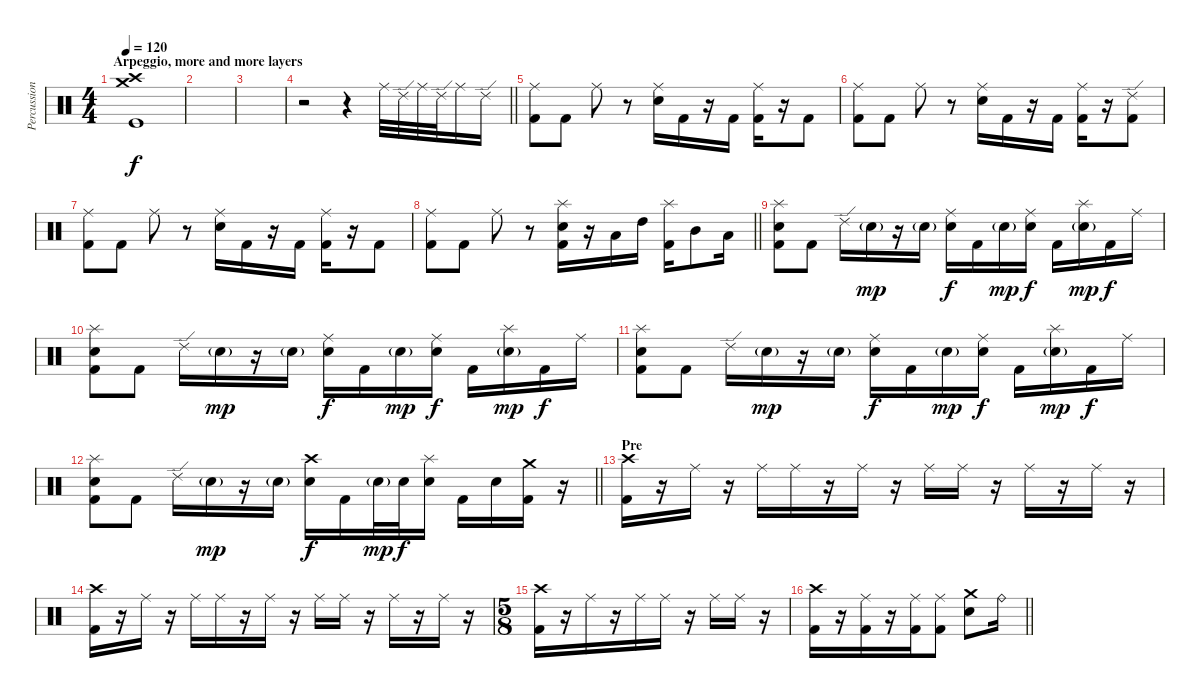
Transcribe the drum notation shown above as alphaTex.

\track ("Percussion" "Percussion") {instrument percussion}
\staff {score}
\articulation defaults
\ts (4 4)
\section ("" "Arpeggio, more and more layers")
\tempo 120
\clef neutral
\ks c
("Crash high (hit)" "Crash medium (hit)" "Kick (hit)").1{dy f} |
|
|
\barLineRight lightlight
r.2 r.4 "Ride (middle)".32{volume 13} "Ride (edge) 2".32 "Ride (middle)".32 "Ride (edge) 2".32 "Ride (middle)".16 "Ride (edge) 2".16 |
("Ride (middle)" "Kick (hit) 2").8 "Kick (hit) 2".8 "Ride (middle)".8 r.8 ("Ride (middle)" "Electric Snare (hit)").16 "Kick (hit) 2".16 r.16 "Kick (hit) 2".16 ("Ride (middle)" "Kick (hit) 2").16 r.16 "Kick (hit) 2".8 |
("Ride (middle)" "Kick (hit) 2").8 "Kick (hit) 2".8 "Ride (middle)".8 r.8 ("Ride (middle)" "Electric Snare (hit)").16 "Kick (hit) 2".16 r.16 "Kick (hit) 2".16 ("Ride (middle)" "Kick (hit) 2").16 r.16 ("Ride (edge) 2" "Kick (hit) 2").8 |
("Ride (middle)" "Kick (hit) 2").8 "Kick (hit) 2".8 "Ride (middle)".8 r.8 ("Ride (middle)" "Electric Snare (hit)").16 "Kick (hit) 2".16 r.16 "Kick (hit) 2".16 ("Ride (middle)" "Kick (hit) 2").16 r.16 "Kick (hit) 2".8 |
\barLineRight lightlight
("Ride (middle)" "Kick (hit) 2").8 "Kick (hit) 2".8 "Ride (middle)".8 r.8 ("Splash (hit)" "Electric Snare (hit)" "Kick (hit) 2").16 r.16 "Low Tom (hit)".16 "High Tom (hit)".16 ("Splash (hit)" "Kick (hit) 2").16 "Mid Tom (hit)".8 "Low Tom (hit)".16 |
("Splash (hit)" "Electric Snare (hit)" "Kick (hit) 2").8 "Kick (hit) 2".8 "Ride (edge) 2".16 "Electric Snare (hit)"{g}.16{dy mp} r.16 "Electric Snare (hit)"{g}.16 ("Ride (middle)" "Electric Snare (hit)").16{dy f} "Kick (hit) 2".16 "Electric Snare (hit)"{g}.16{dy mp} ("Ride (middle)" "Electric Snare (hit)").16{dy f} "Kick (hit) 2".16 ("Splash (hit)" "Electric Snare (hit)"{g}).16{dy mp} "Kick (hit) 2".16{dy f} "Ride (middle)".16 |
("Splash (hit)" "Electric Snare (hit)" "Kick (hit) 2").8 "Kick (hit) 2".8 "Ride (edge) 2".16 "Electric Snare (hit)"{g}.16{dy mp} r.16 "Electric Snare (hit)"{g}.16 ("Ride (middle)" "Electric Snare (hit)").16{dy f} "Kick (hit) 2".16 "Electric Snare (hit)"{g}.16{dy mp} ("Ride (middle)" "Electric Snare (hit)").16{dy f} "Kick (hit) 2".16 ("Splash (hit)" "Electric Snare (hit)"{g}).16{dy mp} "Kick (hit) 2".16{dy f} "Ride (middle)".16 |
("Splash (hit)" "Electric Snare (hit)" "Kick (hit) 2").8 "Kick (hit) 2".8 "Ride (edge) 2".16 "Electric Snare (hit)"{g}.16{dy mp} r.16 "Electric Snare (hit)"{g}.16 ("Ride (middle)" "Electric Snare (hit)").16{dy f} "Kick (hit) 2".16 "Electric Snare (hit)"{g}.16{dy mp} ("Ride (middle)" "Electric Snare (hit)").16{dy f} "Kick (hit) 2".16 ("Splash (hit)" "Electric Snare (hit)"{g}).16{dy mp} "Kick (hit) 2".16{dy f} "Ride (middle)".16 |
\barLineRight lightlight
("Splash (hit)" "Electric Snare (hit)" "Kick (hit) 2").8 "Kick (hit) 2".8 "Ride (edge) 2".16 "Electric Snare (hit)"{g}.16{dy mp} r.16 "Electric Snare (hit)"{g}.16 ("Crash high (hit)" "Electric Snare (hit)").16{dy f} "Kick (hit) 2".16 "Electric Snare (hit)"{g}.32{dy mp} "Electric Snare (hit)".32{dy f} ("Splash (hit)" "Electric Snare (hit)").16 "Kick (hit) 2".16 "Electric Snare (hit)".16 ("Crash medium (hit)" "Kick (hit) 2").16 r.16 |
\section ("" "Pre")
("Crash high (hit)" "Kick (hit) 2").16 r.16 "Ride (middle)".16 r.16 "Ride (middle)".16 "Ride (middle)".16 r.16 "Ride (middle)".16 r.16 "Ride (middle)".16 "Ride (middle)".16 r.16 "Ride (middle)".16 r.16 "Ride (middle)".16 r.16 |
("Crash high (hit)" "Kick (hit) 2").16 r.16 "Ride (middle)".16 r.16 "Ride (middle)".16 "Ride (middle)".16 r.16 "Ride (middle)".16 r.16 "Ride (middle)".16 "Ride (middle)".16 r.16 "Ride (middle)".16 r.16 "Ride (middle)".16 r.16 |
\ts (5 8)
("Crash high (hit)" "Kick (hit) 2").16 r.16 "Ride (middle)".16 r.16 "Ride (middle)".16 "Ride (middle)".16 r.16 "Ride (middle)".16 "Ride (middle)".16 r.16 |
\barLineRight lightlight
("Crash high (hit)" "Kick (hit) 2").16 r.16 ("Ride (middle)" "Kick (hit) 2").16 r.16 ("Ride (middle)" "Kick (hit) 2").16 ("Ride (middle)" "Kick (hit) 2").8 ("Crash medium (hit)" "Electric Snare (hit)").8 "Ride (bell)".16
